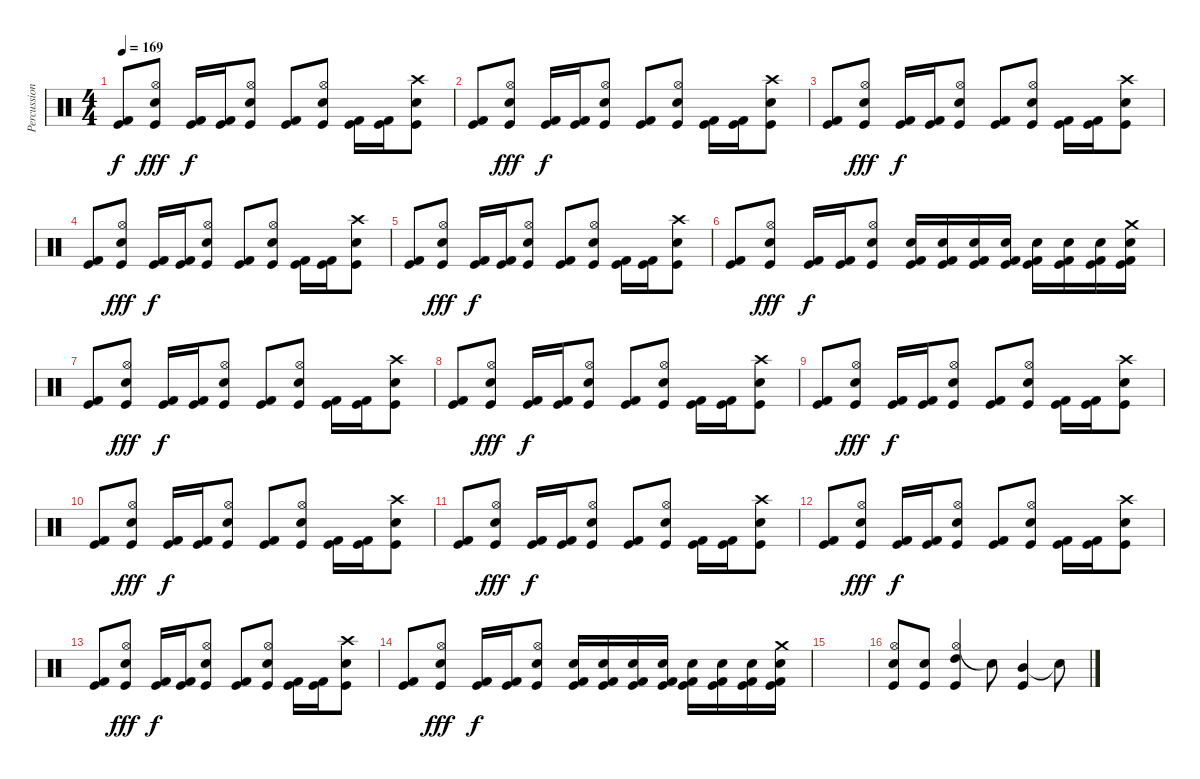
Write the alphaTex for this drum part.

\track ("Percussion" "Percussion") {instrument percussion}
\staff {score}
\articulation defaults
\ts (4 4)
\tempo 169
\clef neutral
\ks c
("Kick (hit) 2" "Kick (hit)").8{dy f} ("Hi-Hat (open)" "Electric Snare (hit)" "Kick (hit)").8{dy fff} ("Kick (hit) 2" "Kick (hit)").16{dy f} ("Kick (hit) 2" "Kick (hit)").16 ("Hi-Hat (open)" "Electric Snare (hit)" "Kick (hit)").8 ("Kick (hit) 2" "Kick (hit)").8 ("Hi-Hat (open)" "Electric Snare (hit)" "Kick (hit)").8 ("Kick (hit) 2" "Kick (hit)").16 ("Kick (hit) 2" "Kick (hit)").16 ("Crash high (hit)" "Electric Snare (hit)" "Kick (hit)").8 |
("Kick (hit) 2" "Kick (hit)").8 ("Hi-Hat (open)" "Electric Snare (hit)" "Kick (hit)").8{dy fff} ("Kick (hit) 2" "Kick (hit)").16{dy f} ("Kick (hit) 2" "Kick (hit)").16 ("Hi-Hat (open)" "Electric Snare (hit)" "Kick (hit)").8 ("Kick (hit) 2" "Kick (hit)").8 ("Hi-Hat (open)" "Electric Snare (hit)" "Kick (hit)").8 ("Kick (hit) 2" "Kick (hit)").16 ("Kick (hit) 2" "Kick (hit)").16 ("Crash high (hit)" "Electric Snare (hit)" "Kick (hit)").8 |
("Kick (hit) 2" "Kick (hit)").8 ("Hi-Hat (open)" "Electric Snare (hit)" "Kick (hit)").8{dy fff} ("Kick (hit) 2" "Kick (hit)").16{dy f} ("Kick (hit) 2" "Kick (hit)").16 ("Hi-Hat (open)" "Electric Snare (hit)" "Kick (hit)").8 ("Kick (hit) 2" "Kick (hit)").8 ("Hi-Hat (open)" "Electric Snare (hit)" "Kick (hit)").8 ("Kick (hit) 2" "Kick (hit)").16 ("Kick (hit) 2" "Kick (hit)").16 ("Crash high (hit)" "Electric Snare (hit)" "Kick (hit)").8 |
("Kick (hit) 2" "Kick (hit)").8 ("Hi-Hat (open)" "Electric Snare (hit)" "Kick (hit)").8{dy fff} ("Kick (hit) 2" "Kick (hit)").16{dy f} ("Kick (hit) 2" "Kick (hit)").16 ("Hi-Hat (open)" "Electric Snare (hit)" "Kick (hit)").8 ("Kick (hit) 2" "Kick (hit)").8 ("Hi-Hat (open)" "Electric Snare (hit)" "Kick (hit)").8 ("Kick (hit) 2" "Kick (hit)").16 ("Kick (hit) 2" "Kick (hit)").16 ("Crash high (hit)" "Electric Snare (hit)" "Kick (hit)").8 |
("Kick (hit) 2" "Kick (hit)").8 ("Hi-Hat (open)" "Electric Snare (hit)" "Kick (hit)").8{dy fff} ("Kick (hit) 2" "Kick (hit)").16{dy f} ("Kick (hit) 2" "Kick (hit)").16 ("Hi-Hat (open)" "Electric Snare (hit)" "Kick (hit)").8 ("Kick (hit) 2" "Kick (hit)").8 ("Hi-Hat (open)" "Electric Snare (hit)" "Kick (hit)").8 ("Kick (hit) 2" "Kick (hit)").16 ("Kick (hit) 2" "Kick (hit)").16 ("Crash high (hit)" "Electric Snare (hit)" "Kick (hit)").8 |
("Kick (hit) 2" "Kick (hit)").8 ("Hi-Hat (open)" "Electric Snare (hit)" "Kick (hit)").8{dy fff} ("Kick (hit) 2" "Kick (hit)").16{dy f} ("Kick (hit) 2" "Kick (hit)").16 ("Hi-Hat (open)" "Electric Snare (hit)" "Kick (hit)").8 ("Snare (hit) 2" "Kick (hit) 2" "Kick (hit)").16 ("Snare (hit) 2" "Kick (hit) 2" "Kick (hit)").16 ("Snare (hit) 2" "Kick (hit) 2" "Kick (hit)").16 ("Snare (hit) 2" "Kick (hit) 2" "Kick (hit)").16 ("Snare (hit) 2" "Kick (hit) 2" "Kick (hit)").16 ("Snare (hit) 2" "Kick (hit) 2" "Kick (hit)").16 ("Snare (hit) 2" "Kick (hit) 2" "Kick (hit)").16 ("Crash medium (hit)" "Snare (hit) 2" "Kick (hit) 2" "Kick (hit)").16 |
("Kick (hit) 2" "Kick (hit)").8 ("Hi-Hat (open)" "Electric Snare (hit)" "Kick (hit)").8{dy fff} ("Kick (hit) 2" "Kick (hit)").16{dy f} ("Kick (hit) 2" "Kick (hit)").16 ("Hi-Hat (open)" "Electric Snare (hit)" "Kick (hit)").8 ("Kick (hit) 2" "Kick (hit)").8 ("Hi-Hat (open)" "Electric Snare (hit)" "Kick (hit)").8 ("Kick (hit) 2" "Kick (hit)").16 ("Kick (hit) 2" "Kick (hit)").16 ("Crash high (hit)" "Electric Snare (hit)" "Kick (hit)").8 |
("Kick (hit) 2" "Kick (hit)").8 ("Hi-Hat (open)" "Electric Snare (hit)" "Kick (hit)").8{dy fff} ("Kick (hit) 2" "Kick (hit)").16{dy f} ("Kick (hit) 2" "Kick (hit)").16 ("Hi-Hat (open)" "Electric Snare (hit)" "Kick (hit)").8 ("Kick (hit) 2" "Kick (hit)").8 ("Hi-Hat (open)" "Electric Snare (hit)" "Kick (hit)").8 ("Kick (hit) 2" "Kick (hit)").16 ("Kick (hit) 2" "Kick (hit)").16 ("Crash high (hit)" "Electric Snare (hit)" "Kick (hit)").8 |
("Kick (hit) 2" "Kick (hit)").8 ("Hi-Hat (open)" "Electric Snare (hit)" "Kick (hit)").8{dy fff} ("Kick (hit) 2" "Kick (hit)").16{dy f} ("Kick (hit) 2" "Kick (hit)").16 ("Hi-Hat (open)" "Electric Snare (hit)" "Kick (hit)").8 ("Kick (hit) 2" "Kick (hit)").8 ("Hi-Hat (open)" "Electric Snare (hit)" "Kick (hit)").8 ("Kick (hit) 2" "Kick (hit)").16 ("Kick (hit) 2" "Kick (hit)").16 ("Crash high (hit)" "Electric Snare (hit)" "Kick (hit)").8 |
("Kick (hit) 2" "Kick (hit)").8 ("Hi-Hat (open)" "Electric Snare (hit)" "Kick (hit)").8{dy fff} ("Kick (hit) 2" "Kick (hit)").16{dy f} ("Kick (hit) 2" "Kick (hit)").16 ("Hi-Hat (open)" "Electric Snare (hit)" "Kick (hit)").8 ("Kick (hit) 2" "Kick (hit)").8 ("Hi-Hat (open)" "Electric Snare (hit)" "Kick (hit)").8 ("Kick (hit) 2" "Kick (hit)").16 ("Kick (hit) 2" "Kick (hit)").16 ("Crash high (hit)" "Electric Snare (hit)" "Kick (hit)").8 |
("Kick (hit) 2" "Kick (hit)").8 ("Hi-Hat (open)" "Electric Snare (hit)" "Kick (hit)").8{dy fff} ("Kick (hit) 2" "Kick (hit)").16{dy f} ("Kick (hit) 2" "Kick (hit)").16 ("Hi-Hat (open)" "Electric Snare (hit)" "Kick (hit)").8 ("Kick (hit) 2" "Kick (hit)").8 ("Hi-Hat (open)" "Electric Snare (hit)" "Kick (hit)").8 ("Kick (hit) 2" "Kick (hit)").16 ("Kick (hit) 2" "Kick (hit)").16 ("Crash high (hit)" "Electric Snare (hit)" "Kick (hit)").8 |
("Kick (hit) 2" "Kick (hit)").8 ("Hi-Hat (open)" "Electric Snare (hit)" "Kick (hit)").8{dy fff} ("Kick (hit) 2" "Kick (hit)").16{dy f} ("Kick (hit) 2" "Kick (hit)").16 ("Hi-Hat (open)" "Electric Snare (hit)" "Kick (hit)").8 ("Kick (hit) 2" "Kick (hit)").8 ("Hi-Hat (open)" "Electric Snare (hit)" "Kick (hit)").8 ("Kick (hit) 2" "Kick (hit)").16 ("Kick (hit) 2" "Kick (hit)").16 ("Crash high (hit)" "Electric Snare (hit)" "Kick (hit)").8 |
("Kick (hit) 2" "Kick (hit)").8 ("Hi-Hat (open)" "Electric Snare (hit)" "Kick (hit)").8{dy fff} ("Kick (hit) 2" "Kick (hit)").16{dy f} ("Kick (hit) 2" "Kick (hit)").16 ("Hi-Hat (open)" "Electric Snare (hit)" "Kick (hit)").8 ("Kick (hit) 2" "Kick (hit)").8 ("Hi-Hat (open)" "Electric Snare (hit)" "Kick (hit)").8 ("Kick (hit) 2" "Kick (hit)").16 ("Kick (hit) 2" "Kick (hit)").16 ("Crash high (hit)" "Electric Snare (hit)" "Kick (hit)").8 |
("Kick (hit) 2" "Kick (hit)").8 ("Hi-Hat (open)" "Electric Snare (hit)" "Kick (hit)").8{dy fff} ("Kick (hit) 2" "Kick (hit)").16{dy f} ("Kick (hit) 2" "Kick (hit)").16 ("Hi-Hat (open)" "Electric Snare (hit)" "Kick (hit)").8 ("Snare (hit) 2" "Kick (hit) 2" "Kick (hit)").16 ("Snare (hit) 2" "Kick (hit) 2" "Kick (hit)").16 ("Snare (hit) 2" "Kick (hit) 2" "Kick (hit)").16 ("Snare (hit) 2" "Kick (hit) 2" "Kick (hit)").16 ("Snare (hit) 2" "Kick (hit) 2" "Kick (hit)").16 ("Snare (hit) 2" "Kick (hit) 2" "Kick (hit)").16 ("Snare (hit) 2" "Kick (hit) 2" "Kick (hit)").16 ("Crash medium (hit)" "Snare (hit) 2" "Kick (hit) 2" "Kick (hit)").16 |
|
("Hi-Hat (open)" "Electric Snare (hit)" "Kick (hit)").8 ("Electric Snare (hit)" "Kick (hit)").8 ("Hi-Hat (open)" "High Tom (hit)" "Kick (hit)").4 "Snare (hit)"{t}.8 ("Mid Tom (hit)" "Kick (hit)").4 "Snare (hit)"{t}.8
